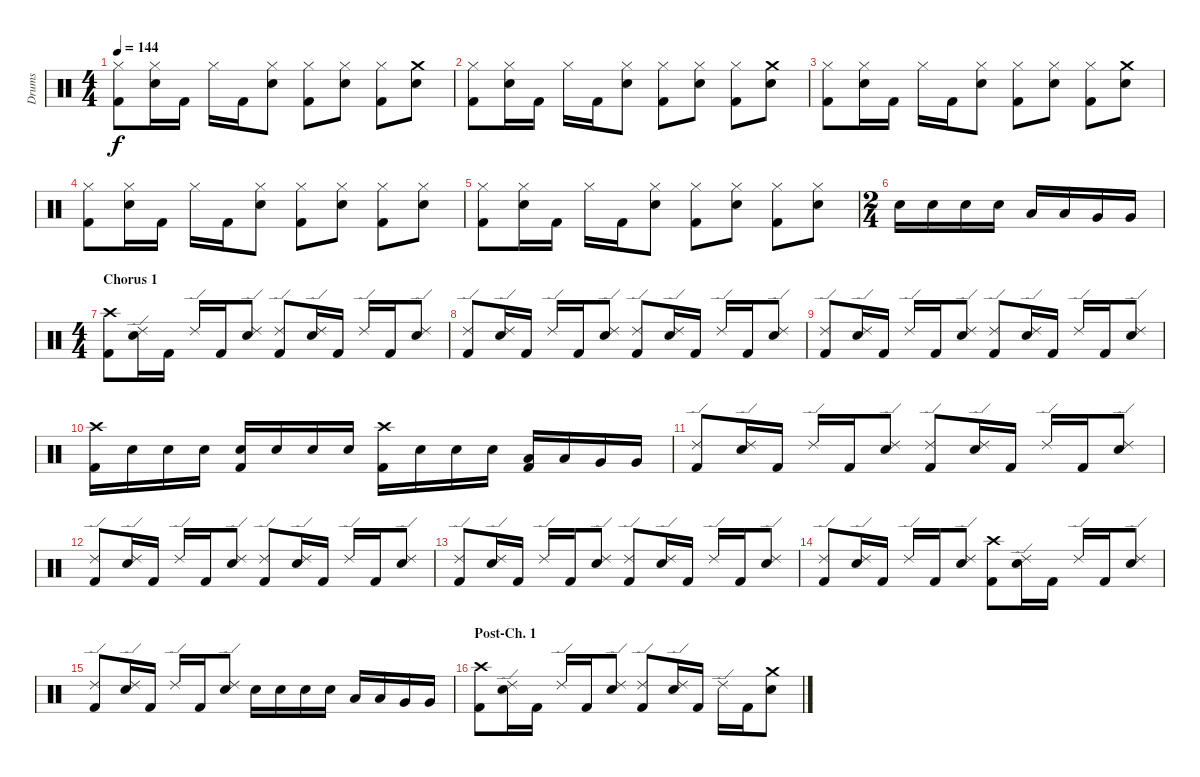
\track ("Drums" "Drums") {instrument percussion}
\staff {score}
\articulation defaults
\ts (4 4)
\tempo 144
\clef neutral
\ks c
("Hi-Hat (closed)" "Kick (hit) 2").8{dy f} ("Hi-Hat (closed)" "Electric Snare (hit)").16 "Kick (hit) 2".16 "Hi-Hat (closed)".16 "Kick (hit) 2".16 ("Hi-Hat (closed)" "Electric Snare (hit)").8 ("Hi-Hat (closed)" "Kick (hit) 2").8 ("Hi-Hat (closed)" "Electric Snare (hit)").8 ("Hi-Hat (closed)" "Kick (hit) 2").8 ("Crash medium (hit)" "Electric Snare (hit)").8 |
("Hi-Hat (closed)" "Kick (hit) 2").8 ("Hi-Hat (closed)" "Electric Snare (hit)").16 "Kick (hit) 2".16 "Hi-Hat (closed)".16 "Kick (hit) 2".16 ("Hi-Hat (closed)" "Electric Snare (hit)").8 ("Hi-Hat (closed)" "Kick (hit) 2").8 ("Hi-Hat (closed)" "Electric Snare (hit)").8 ("Hi-Hat (closed)" "Kick (hit) 2").8 ("Crash medium (hit)" "Electric Snare (hit)").8 |
("Hi-Hat (closed)" "Kick (hit) 2").8 ("Hi-Hat (closed)" "Electric Snare (hit)").16 "Kick (hit) 2".16 "Hi-Hat (closed)".16 "Kick (hit) 2".16 ("Hi-Hat (closed)" "Electric Snare (hit)").8 ("Hi-Hat (closed)" "Kick (hit) 2").8 ("Hi-Hat (closed)" "Electric Snare (hit)").8 ("Hi-Hat (closed)" "Kick (hit) 2").8 ("Crash medium (hit)" "Electric Snare (hit)").8 |
("Hi-Hat (closed)" "Kick (hit) 2").8 ("Hi-Hat (closed)" "Electric Snare (hit)").16 "Kick (hit) 2".16 "Hi-Hat (closed)".16 "Kick (hit) 2".16 ("Hi-Hat (closed)" "Electric Snare (hit)").8 ("Hi-Hat (closed)" "Kick (hit) 2").8 ("Hi-Hat (closed)" "Electric Snare (hit)").8 ("Hi-Hat (closed)" "Kick (hit) 2").8 ("Hi-Hat (closed)" "Electric Snare (hit)").8 |
("Hi-Hat (closed)" "Kick (hit) 2").8 ("Hi-Hat (closed)" "Electric Snare (hit)").16 "Kick (hit) 2".16 "Hi-Hat (closed)".16 "Kick (hit) 2".16 ("Hi-Hat (closed)" "Electric Snare (hit)").8 ("Hi-Hat (closed)" "Kick (hit) 2").8 ("Hi-Hat (closed)" "Electric Snare (hit)").8 ("Hi-Hat (closed)" "Kick (hit) 2").8 ("Hi-Hat (closed)" "Electric Snare (hit)").8 |
\ts (2 4)
"Electric Snare (hit)".16 "Electric Snare (hit)".16 "Electric Snare (hit)".16 "Electric Snare (hit)".16 "Low Tom (hit)".16 "Low Tom (hit)".16 "Very Low Tom (hit)".16 "Very Low Tom (hit)".16 |
\ts (4 4)
\section ("" "Chorus 1")
("Crash high (hit)" "Kick (hit) 2").8 ("Ride (edge) 2" "Electric Snare (hit)").16 "Kick (hit) 2".16 "Ride (edge) 2".16 "Kick (hit) 2".16 ("Ride (edge) 2" "Electric Snare (hit)").8 ("Ride (edge) 2" "Kick (hit) 2").8 ("Ride (edge) 2" "Electric Snare (hit)").16 "Kick (hit) 2".16 "Ride (edge) 2".16 "Kick (hit) 2".16 ("Ride (edge) 2" "Electric Snare (hit)").8 |
("Ride (edge) 2" "Kick (hit) 2").8 ("Ride (edge) 2" "Electric Snare (hit)").16 "Kick (hit) 2".16 "Ride (edge) 2".16 "Kick (hit) 2".16 ("Ride (edge) 2" "Electric Snare (hit)").8 ("Ride (edge) 2" "Kick (hit) 2").8 ("Ride (edge) 2" "Electric Snare (hit)").16 "Kick (hit) 2".16 "Ride (edge) 2".16 "Kick (hit) 2".16 ("Ride (edge) 2" "Electric Snare (hit)").8 |
("Ride (edge) 2" "Kick (hit) 2").8 ("Ride (edge) 2" "Electric Snare (hit)").16 "Kick (hit) 2".16 "Ride (edge) 2".16 "Kick (hit) 2".16 ("Ride (edge) 2" "Electric Snare (hit)").8 ("Ride (edge) 2" "Kick (hit) 2").8 ("Ride (edge) 2" "Electric Snare (hit)").16 "Kick (hit) 2".16 "Ride (edge) 2".16 "Kick (hit) 2".16 ("Ride (edge) 2" "Electric Snare (hit)").8 |
("Crash high (hit)" "Kick (hit) 2").16 "Electric Snare (hit)".16 "Electric Snare (hit)".16 "Electric Snare (hit)".16 ("Electric Snare (hit)" "Kick (hit) 2").16 "Electric Snare (hit)".16 "Electric Snare (hit)".16 "Electric Snare (hit)".16 ("Crash high (hit)" "Kick (hit) 2").16 "Electric Snare (hit)".16 "Electric Snare (hit)".16 "Electric Snare (hit)".16 ("Low Tom (hit)" "Kick (hit) 2").16 "Low Tom (hit)".16 "Very Low Tom (hit)".16 "Very Low Tom (hit)".16 |
("Ride (edge) 2" "Kick (hit) 2").8 ("Ride (edge) 2" "Electric Snare (hit)").16 "Kick (hit) 2".16 "Ride (edge) 2".16 "Kick (hit) 2".16 ("Ride (edge) 2" "Electric Snare (hit)").8 ("Ride (edge) 2" "Kick (hit) 2").8 ("Ride (edge) 2" "Electric Snare (hit)").16 "Kick (hit) 2".16 "Ride (edge) 2".16 "Kick (hit) 2".16 ("Ride (edge) 2" "Electric Snare (hit)").8 |
("Ride (edge) 2" "Kick (hit) 2").8 ("Ride (edge) 2" "Electric Snare (hit)").16 "Kick (hit) 2".16 "Ride (edge) 2".16 "Kick (hit) 2".16 ("Ride (edge) 2" "Electric Snare (hit)").8 ("Ride (edge) 2" "Kick (hit) 2").8 ("Ride (edge) 2" "Electric Snare (hit)").16 "Kick (hit) 2".16 "Ride (edge) 2".16 "Kick (hit) 2".16 ("Ride (edge) 2" "Electric Snare (hit)").8 |
("Ride (edge) 2" "Kick (hit) 2").8 ("Ride (edge) 2" "Electric Snare (hit)").16 "Kick (hit) 2".16 "Ride (edge) 2".16 "Kick (hit) 2".16 ("Ride (edge) 2" "Electric Snare (hit)").8 ("Ride (edge) 2" "Kick (hit) 2").8 ("Ride (edge) 2" "Electric Snare (hit)").16 "Kick (hit) 2".16 "Ride (edge) 2".16 "Kick (hit) 2".16 ("Ride (edge) 2" "Electric Snare (hit)").8 |
("Ride (edge) 2" "Kick (hit) 2").8 ("Ride (edge) 2" "Electric Snare (hit)").16 "Kick (hit) 2".16 "Ride (edge) 2".16 "Kick (hit) 2".16 ("Ride (edge) 2" "Electric Snare (hit)").8 ("Crash high (hit)" "Kick (hit) 2").8 ("Ride (edge) 2" "Electric Snare (hit)").16 "Kick (hit) 2".16 "Ride (edge) 2".16 "Kick (hit) 2".16 ("Ride (edge) 2" "Electric Snare (hit)").8 |
("Ride (edge) 2" "Kick (hit) 2").8 ("Ride (edge) 2" "Electric Snare (hit)").16 "Kick (hit) 2".16 "Ride (edge) 2".16 "Kick (hit) 2".16 ("Ride (edge) 2" "Electric Snare (hit)").8 "Electric Snare (hit)".16 "Electric Snare (hit)".16 "Electric Snare (hit)".16 "Electric Snare (hit)".16 "Low Tom (hit)".16 "Low Tom (hit)".16 "Very Low Tom (hit)".16 "Very Low Tom (hit)".16 |
\section ("" "Post-Ch. 1")
("Crash high (hit)" "Kick (hit) 2").8 ("Ride (edge) 2" "Electric Snare (hit)").16 "Kick (hit) 2".16 "Ride (edge) 2".16 "Kick (hit) 2".16 ("Ride (edge) 2" "Electric Snare (hit)").8 ("Ride (edge) 2" "Kick (hit) 2").8 ("Ride (edge) 2" "Electric Snare (hit)").16 "Kick (hit) 2".16 "Ride (edge) 2".16 "Kick (hit) 2".16 ("Crash medium (hit)" "Electric Snare (hit)").8
